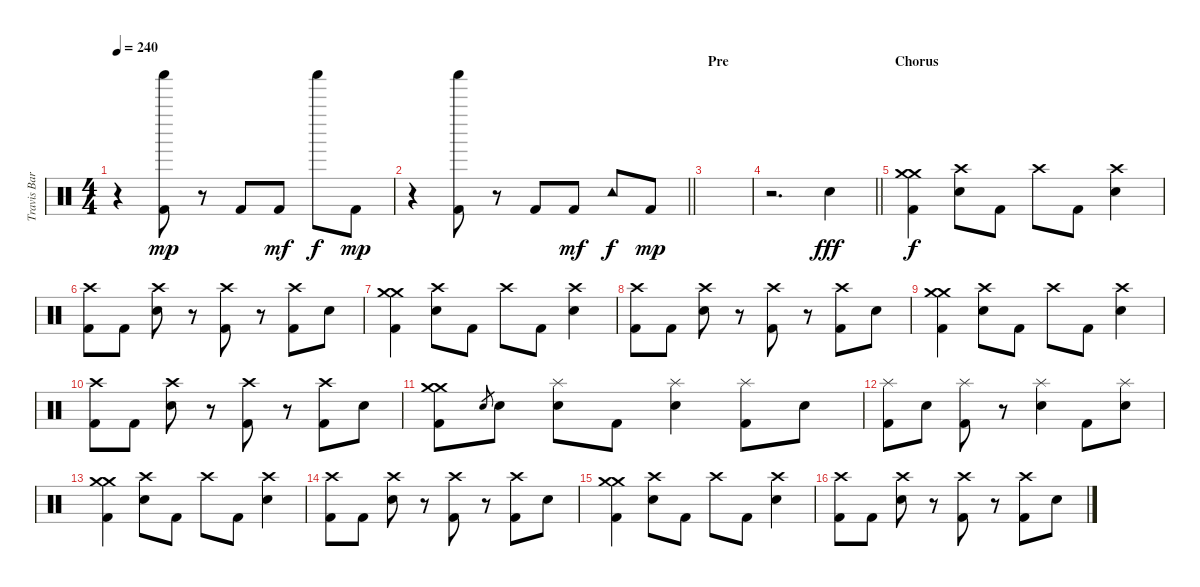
\track ("Travis Barker - Drums" "Travis Bar") {instrument percussion}
\staff {score}
\articulation defaults
\ts (4 4)
\tempo 240
\clef neutral
\ks c
r.4{dy mp} ("Shaker (hit)" "Kick (hit) 2").8 r.8 "Kick (hit) 2".8 "Kick (hit) 2".8{dy mf} "Shaker (hit)".8{dy f} "Kick (hit) 2".8{dy mp} |
\barLineRight lightlight
r.4 ("Shaker (hit)" "Kick (hit) 2").8 r.8 "Kick (hit) 2".8 "Kick (hit) 2".8{dy mf} "Tambourine (hit)".8{dy f} "Kick (hit) 2".8{dy mp} |
\section ("" "Pre")
|
\barLineRight lightlight
r.2{d} "Electric Snare (hit)".4{dy fff} |
\section ("" "Chorus")
("Crash medium (hit)" "Crash medium (hit)" "Kick (hit) 2").4{dy f} ("Crash high (hit)" "Electric Snare (hit)").8 "Kick (hit) 2".8 "Crash high (hit)".8 "Kick (hit) 2".8 ("Crash high (hit)" "Electric Snare (hit)").4 |
("Crash high (hit)" "Kick (hit) 2").8 "Kick (hit) 2".8 ("Crash high (hit)" "Electric Snare (hit)").8 r.8 ("Crash high (hit)" "Kick (hit) 2").8 r.8 ("Crash high (hit)" "Kick (hit) 2").8 "Electric Snare (hit)".8 |
("Crash medium (hit)" "Crash medium (hit)" "Kick (hit) 2").4 ("Crash high (hit)" "Electric Snare (hit)").8 "Kick (hit) 2".8 "Crash high (hit)".8 "Kick (hit) 2".8 ("Crash high (hit)" "Electric Snare (hit)").4 |
("Crash high (hit)" "Kick (hit) 2").8 "Kick (hit) 2".8 ("Crash high (hit)" "Electric Snare (hit)").8 r.8 ("Crash high (hit)" "Kick (hit) 2").8 r.8 ("Crash high (hit)" "Kick (hit) 2").8 "Electric Snare (hit)".8 |
("Crash medium (hit)" "Crash medium (hit)" "Kick (hit) 2").4 ("Crash high (hit)" "Electric Snare (hit)").8 "Kick (hit) 2".8 "Crash high (hit)".8 "Kick (hit) 2".8 ("Crash high (hit)" "Electric Snare (hit)").4 |
("Crash high (hit)" "Kick (hit) 2").8 "Kick (hit) 2".8 ("Crash high (hit)" "Electric Snare (hit)").8 r.8 ("Crash high (hit)" "Kick (hit) 2").8 r.8 ("Crash high (hit)" "Kick (hit) 2").8 "Electric Snare (hit)".8 |
("Crash medium (hit)" "Crash medium (hit)" "Kick (hit) 2").8 "Electric Snare (hit)".8{gr} "Electric Snare (hit)".8 ("Splash (hit)" "Electric Snare (hit)").8 "Kick (hit) 2".8 ("Splash (hit)" "Electric Snare (hit)").4 ("Splash (hit)" "Kick (hit) 2").8 "Electric Snare (hit)".8 |
("Splash (hit)" "Kick (hit) 2").8 "Electric Snare (hit)".8 ("Splash (hit)" "Kick (hit) 2").8 r.8 ("Splash (hit)" "Electric Snare (hit)").4 "Kick (hit) 2".8 ("Splash (hit)" "Electric Snare (hit)").8 |
("Crash medium (hit)" "Crash medium (hit)" "Kick (hit) 2").4 ("Crash high (hit)" "Electric Snare (hit)").8 "Kick (hit) 2".8 "Crash high (hit)".8 "Kick (hit) 2".8 ("Crash high (hit)" "Electric Snare (hit)").4 |
("Crash high (hit)" "Kick (hit) 2").8 "Kick (hit) 2".8 ("Crash high (hit)" "Electric Snare (hit)").8 r.8 ("Crash high (hit)" "Kick (hit) 2").8 r.8 ("Crash high (hit)" "Kick (hit) 2").8 "Electric Snare (hit)".8 |
("Crash medium (hit)" "Crash medium (hit)" "Kick (hit) 2").4 ("Crash high (hit)" "Electric Snare (hit)").8 "Kick (hit) 2".8 "Crash high (hit)".8 "Kick (hit) 2".8 ("Crash high (hit)" "Electric Snare (hit)").4 |
("Crash high (hit)" "Kick (hit) 2").8 "Kick (hit) 2".8 ("Crash high (hit)" "Electric Snare (hit)").8 r.8 ("Crash high (hit)" "Kick (hit) 2").8 r.8 ("Crash high (hit)" "Kick (hit) 2").8 "Electric Snare (hit)".8
